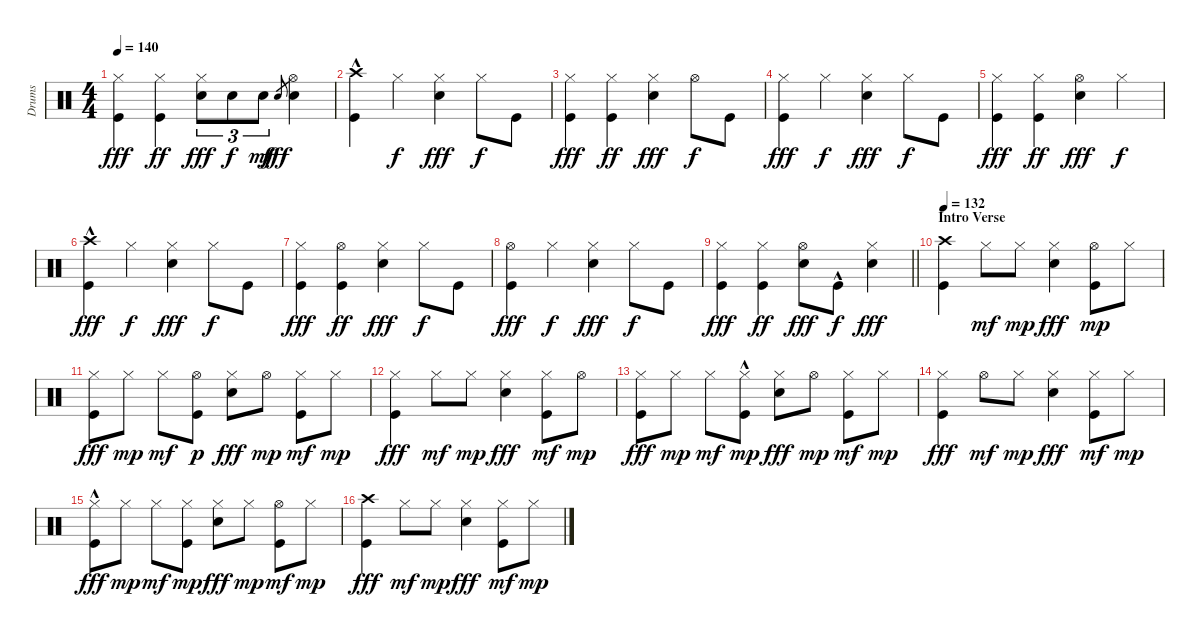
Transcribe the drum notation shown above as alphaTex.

\track ("Drums" "Drums") {instrument percussion}
\staff {score}
\articulation defaults
\ts (4 4)
\tempo 140
\clef neutral
\ks c
("Hi-Hat (closed)" "Kick (hit)").4{dy fff} ("Hi-Hat (closed)" "Kick (hit)").4{dy ff} ("Hi-Hat (closed)" "Snare (hit) 2").8{tu (3 2) dy fff} "Snare (hit) 2".8{tu (3 2) dy f} "Snare (hit) 2".8{tu (3 2) dy mf} "Snare (hit) 2".8{gr dy fff} ("Hi-Hat (open)" "Snare (hit) 2").4 |
("Crash high (hit)" "Kick (hit)"{hac}).4 "Hi-Hat (closed)".4{dy f} ("Hi-Hat (closed)" "Snare (hit) 2").4{dy fff} "Hi-Hat (closed)".8{dy f} "Kick (hit)".8 |
("Hi-Hat (closed)" "Kick (hit)").4{dy fff} ("Hi-Hat (closed)" "Kick (hit)").4{dy ff} ("Hi-Hat (closed)" "Snare (hit) 2").4{dy fff} "Hi-Hat (open)".8{dy f} "Kick (hit)".8 |
("Hi-Hat (closed)" "Kick (hit)").4{dy fff} "Hi-Hat (closed)".4{dy f} ("Hi-Hat (closed)" "Snare (hit) 2").4{dy fff} "Hi-Hat (closed)".8{dy f} "Kick (hit)".8 |
("Hi-Hat (closed)" "Kick (hit)").4{dy fff} ("Hi-Hat (closed)" "Kick (hit)").4{dy ff} ("Hi-Hat (open)" "Snare (hit) 2").4{dy fff} "Hi-Hat (closed)".4{dy f} |
("Crash high (hit)" "Kick (hit)"{hac}).4{dy fff} "Hi-Hat (closed)".4{dy f} ("Hi-Hat (closed)" "Snare (hit) 2").4{dy fff} "Hi-Hat (closed)".8{dy f} "Kick (hit)".8 |
("Hi-Hat (closed)" "Kick (hit)").4{dy fff} ("Hi-Hat (open)" "Kick (hit)").4{dy ff} ("Hi-Hat (closed)" "Snare (hit) 2").4{dy fff} "Hi-Hat (closed)".8{dy f} "Kick (hit)".8 |
("Hi-Hat (open)" "Kick (hit)").4{dy fff} "Hi-Hat (closed)".4{dy f} ("Hi-Hat (closed)" "Snare (hit) 2").4{dy fff} "Hi-Hat (closed)".8{dy f} "Kick (hit)".8 |
\barLineRight lightlight
("Hi-Hat (closed)" "Kick (hit)").4{dy fff} ("Hi-Hat (closed)" "Kick (hit)").4{dy ff} ("Hi-Hat (open)" "Snare (hit) 2").8{dy fff} "Kick (hit)"{hac}.8{dy f} ("Hi-Hat (closed)" "Snare (hit) 2").4{dy fff} |
\section ("" "Intro Verse")
\tempo 132
("Crash high (hit)" "Kick (hit)").4 "Hi-Hat (closed)".8{dy mf} "Hi-Hat (closed)".8{dy mp} ("Hi-Hat (closed)" "Snare (hit) 2").4{dy fff} ("Hi-Hat (open)" "Kick (hit)").8{dy mp} "Hi-Hat (closed)".8 |
("Hi-Hat (closed)" "Kick (hit)").8{dy fff} "Hi-Hat (closed)".8{dy mp} "Hi-Hat (closed)".8{dy mf} ("Hi-Hat (open)" "Kick (hit)").8{dy p} ("Hi-Hat (closed)" "Snare (hit) 2").8{dy fff} "Hi-Hat (open)".8{dy mp} ("Hi-Hat (closed)" "Kick (hit)").8{dy mf} "Hi-Hat (closed)".8{dy mp} |
("Hi-Hat (closed)" "Kick (hit)").4{dy fff} "Hi-Hat (closed)".8{dy mf} "Hi-Hat (closed)".8{dy mp} ("Hi-Hat (closed)" "Snare (hit) 2").4{dy fff} ("Hi-Hat (closed)" "Kick (hit)").8{dy mf} "Hi-Hat (open)".8{dy mp} |
("Hi-Hat (closed)" "Kick (hit)").8{dy fff} "Hi-Hat (closed)".8{dy mp} "Hi-Hat (closed)".8{dy mf} ("Hi-Hat (closed)" "Kick (hit)"{hac}).8{dy mp} ("Hi-Hat (closed)" "Snare (hit) 2").8{dy fff} "Hi-Hat (open)".8{dy mp} ("Hi-Hat (closed)" "Kick (hit)").8{dy mf} "Hi-Hat (closed)".8{dy mp} |
("Hi-Hat (closed)" "Kick (hit)").4{dy fff} "Hi-Hat (open)".8{dy mf} "Hi-Hat (closed)".8{dy mp} ("Hi-Hat (closed)" "Snare (hit) 2").4{dy fff} ("Hi-Hat (closed)" "Kick (hit)").8{dy mf} "Hi-Hat (closed)".8{dy mp} |
("Hi-Hat (closed)" "Kick (hit)"{hac}).8{dy fff} "Hi-Hat (closed)".8{dy mp} "Hi-Hat (closed)".8{dy mf} ("Hi-Hat (closed)" "Kick (hit)").8{dy mp} ("Hi-Hat (closed)" "Snare (hit) 2").8{dy fff} "Hi-Hat (closed)".8{dy mp} ("Hi-Hat (open)" "Kick (hit)").8{dy mf} "Hi-Hat (closed)".8{dy mp} |
("Crash high (hit)" "Kick (hit)").4{dy fff} "Hi-Hat (closed)".8{dy mf} "Hi-Hat (closed)".8{dy mp} ("Hi-Hat (closed)" "Snare (hit) 2").4{dy fff} ("Hi-Hat (closed)" "Kick (hit)").8{dy mf} "Hi-Hat (closed)".8{dy mp}
